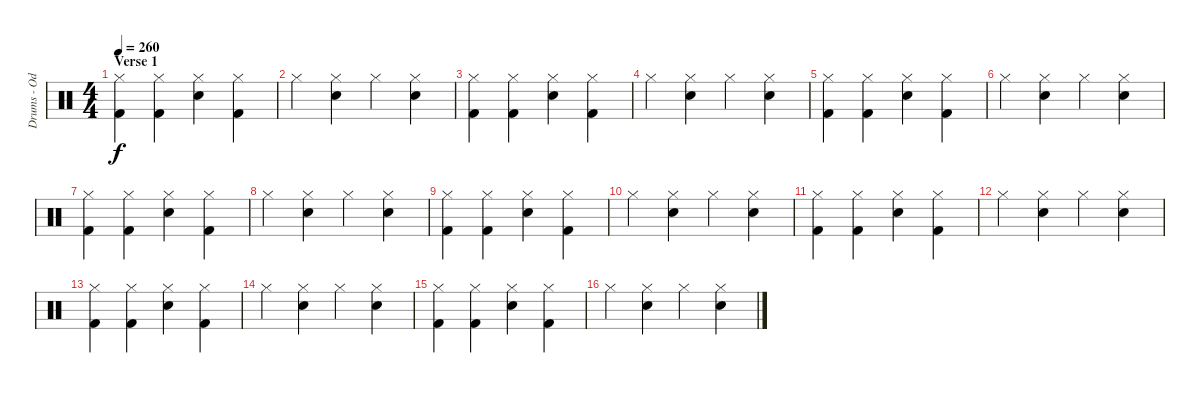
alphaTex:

\track ("Drums - Oded Perach" "Drums - Od") {instrument percussion}
\staff {score}
\articulation defaults
\ts (4 4)
\section ("" "Verse 1")
\tempo 260
\clef neutral
\ks c
("Hi-Hat (closed)" "Kick (hit) 2").4{dy f} ("Hi-Hat (closed)" "Kick (hit) 2").4 ("Hi-Hat (closed)" "Snare (hit) 2").4 ("Hi-Hat (closed)" "Kick (hit) 2").4 |
"Hi-Hat (closed)".4 ("Hi-Hat (closed)" "Snare (hit) 2").4 "Hi-Hat (closed)".4 ("Hi-Hat (closed)" "Snare (hit) 2").4 |
("Hi-Hat (closed)" "Kick (hit) 2").4 ("Hi-Hat (closed)" "Kick (hit) 2").4 ("Hi-Hat (closed)" "Snare (hit) 2").4 ("Hi-Hat (closed)" "Kick (hit) 2").4 |
"Hi-Hat (closed)".4 ("Hi-Hat (closed)" "Snare (hit) 2").4 "Hi-Hat (closed)".4 ("Hi-Hat (closed)" "Snare (hit) 2").4 |
("Hi-Hat (closed)" "Kick (hit) 2").4 ("Hi-Hat (closed)" "Kick (hit) 2").4 ("Hi-Hat (closed)" "Snare (hit) 2").4 ("Hi-Hat (closed)" "Kick (hit) 2").4 |
"Hi-Hat (closed)".4 ("Hi-Hat (closed)" "Snare (hit) 2").4 "Hi-Hat (closed)".4 ("Hi-Hat (closed)" "Snare (hit) 2").4 |
("Hi-Hat (closed)" "Kick (hit) 2").4 ("Hi-Hat (closed)" "Kick (hit) 2").4 ("Hi-Hat (closed)" "Snare (hit) 2").4 ("Hi-Hat (closed)" "Kick (hit) 2").4 |
"Hi-Hat (closed)".4 ("Hi-Hat (closed)" "Snare (hit) 2").4 "Hi-Hat (closed)".4 ("Hi-Hat (closed)" "Snare (hit) 2").4 |
("Hi-Hat (closed)" "Kick (hit) 2").4 ("Hi-Hat (closed)" "Kick (hit) 2").4 ("Hi-Hat (closed)" "Snare (hit) 2").4 ("Hi-Hat (closed)" "Kick (hit) 2").4 |
"Hi-Hat (closed)".4 ("Hi-Hat (closed)" "Snare (hit) 2").4 "Hi-Hat (closed)".4 ("Hi-Hat (closed)" "Snare (hit) 2").4 |
("Hi-Hat (closed)" "Kick (hit) 2").4 ("Hi-Hat (closed)" "Kick (hit) 2").4 ("Hi-Hat (closed)" "Snare (hit) 2").4 ("Hi-Hat (closed)" "Kick (hit) 2").4 |
"Hi-Hat (closed)".4 ("Hi-Hat (closed)" "Snare (hit) 2").4 "Hi-Hat (closed)".4 ("Hi-Hat (closed)" "Snare (hit) 2").4 |
("Hi-Hat (closed)" "Kick (hit) 2").4 ("Hi-Hat (closed)" "Kick (hit) 2").4 ("Hi-Hat (closed)" "Snare (hit) 2").4 ("Hi-Hat (closed)" "Kick (hit) 2").4 |
"Hi-Hat (closed)".4 ("Hi-Hat (closed)" "Snare (hit) 2").4 "Hi-Hat (closed)".4 ("Hi-Hat (closed)" "Snare (hit) 2").4 |
("Hi-Hat (closed)" "Kick (hit) 2").4 ("Hi-Hat (closed)" "Kick (hit) 2").4 ("Hi-Hat (closed)" "Snare (hit) 2").4 ("Hi-Hat (closed)" "Kick (hit) 2").4 |
"Hi-Hat (closed)".4 ("Hi-Hat (closed)" "Snare (hit) 2").4 "Hi-Hat (closed)".4 ("Hi-Hat (closed)" "Snare (hit) 2").4
